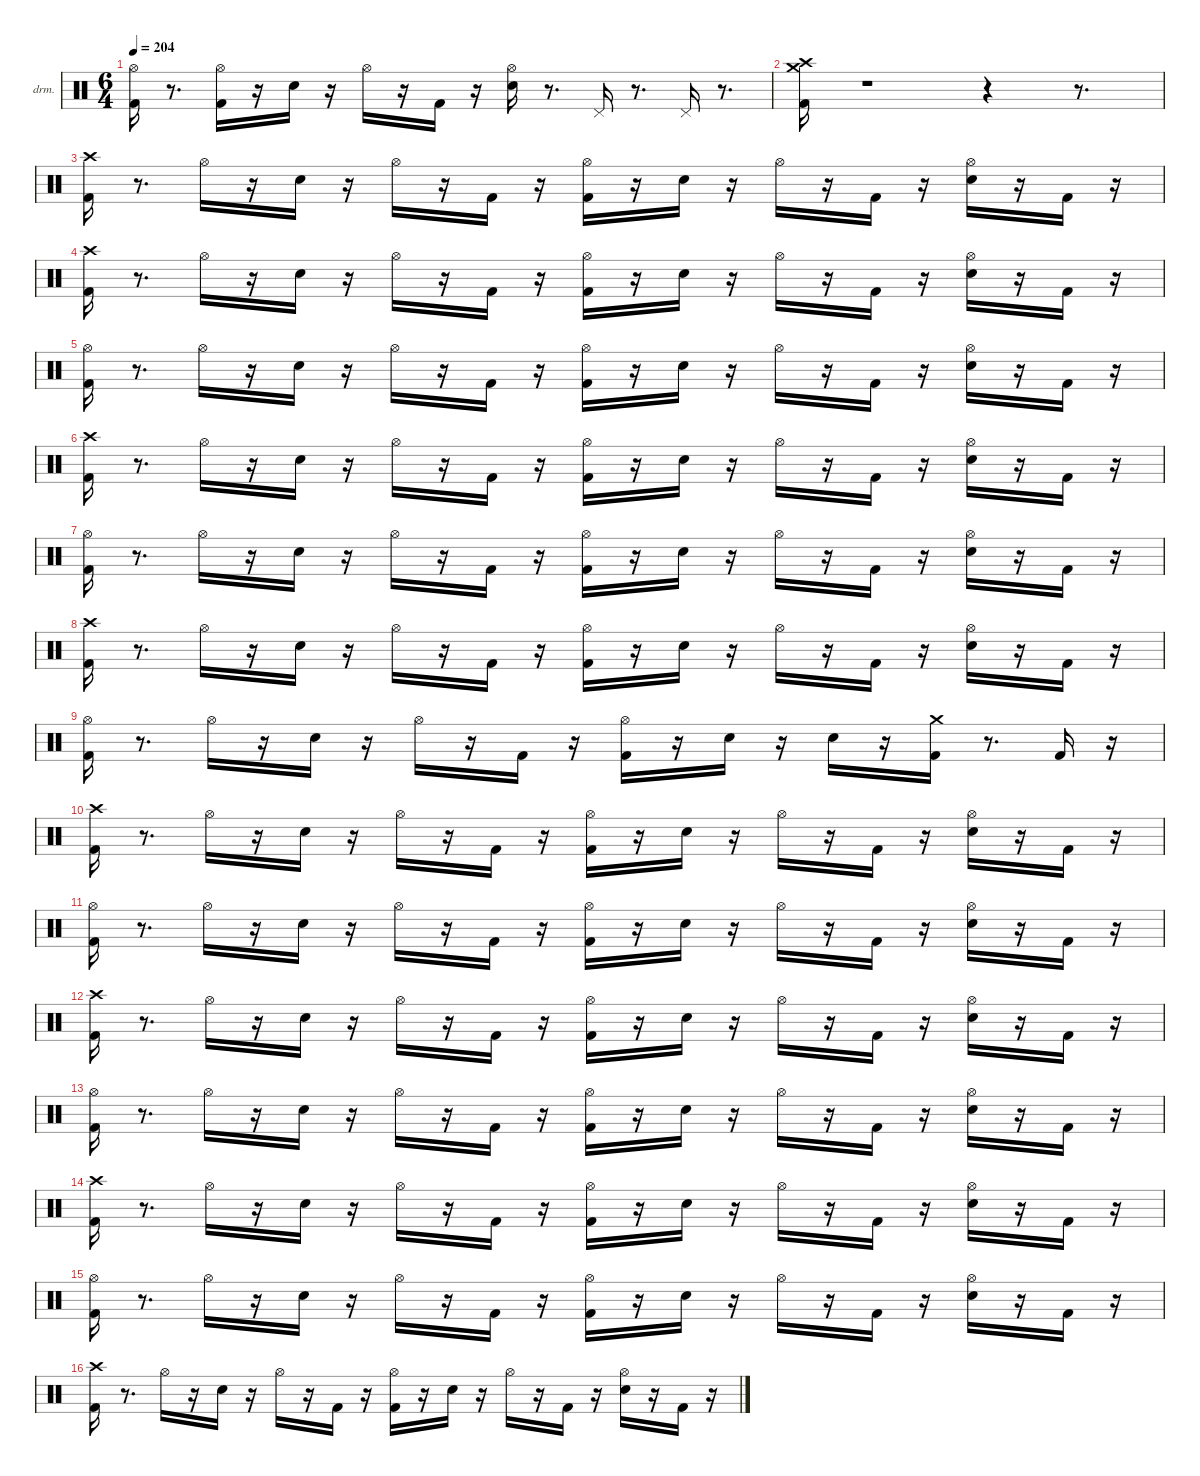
\hideDynamics
\bracketExtendMode nobrackets
\firstSystemTrackNameOrientation horizontal
\otherSystemsTrackNameOrientation horizontal
\track ("drums" "drm.") {instrument percussion}
\staff {score}
\articulation defaults
\ts (6 4)
\tempo 204
\clef neutral
\ks aminor
("Kick (hit) 2" "Hi-Hat (open)"{acc #}).16{dy fff beam Down} r.8{d beam Down} ("Kick (hit) 2" "Hi-Hat (open)"{acc #}).16{dy ff beam Down} r.16{beam Down} "Snare (hit) 2".16{beam Down} r.16{beam Down} "Hi-Hat (open)"{acc #}.16{dy f beam Down} r.16{beam Down} "Kick (hit) 2".16{beam Up} r.16{beam Up} ("Snare (hit) 2" "Hi-Hat (open)"{acc #}).16{dy ff beam Down} r.8{d beam Down} "Pedal Hi-Hat (hit)"{acc #}.16{dy f beam Up} r.8{d beam Up} "Pedal Hi-Hat (hit)"{acc #}.16{dy fff beam Up} r.8{d beam Up} |
("Kick (hit) 2" "Crash high (hit)"{acc #} "Crash medium (hit)").16{beam Down} r.1{beam Down} r.4{beam Down} r.8{d beam Down} |
("Kick (hit) 2" "Crash high (hit)"{acc #}).16{beam Down} r.8{d beam Down} "Hi-Hat (open)"{acc #}.16{dy mf beam Down} r.16{beam Down} "Snare (hit) 2".16{dy ff beam Down} r.16{beam Down} "Hi-Hat (open)"{acc #}.16{dy f beam Down} r.16{beam Down} "Kick (hit) 2".16{dy mf beam Up} r.16{beam Up} ("Kick (hit) 2" "Hi-Hat (open)"{acc #}).16{dy fff beam Down} r.16{beam Down} "Snare (hit) 2".16{dy ff beam Down} r.16{beam Down} "Hi-Hat (open)"{acc #}.16{dy mf beam Down} r.16{beam Down} "Kick (hit) 2".16{dy ff beam Up} r.16{beam Up} ("Snare (hit) 2" "Hi-Hat (open)"{acc #}).16{dy f beam Down} r.16{beam Down} "Kick (hit) 2".16{dy mp beam Up} r.16{beam Up} |
("Kick (hit) 2" "Crash high (hit)"{acc #}).16{dy fff beam Down} r.8{d beam Down} "Hi-Hat (open)"{acc #}.16{dy mf beam Down} r.16{beam Down} "Snare (hit) 2".16{dy ff beam Down} r.16{beam Down} "Hi-Hat (open)"{acc #}.16{dy f beam Down} r.16{beam Down} "Kick (hit) 2".16{dy mf beam Up} r.16{beam Up} ("Kick (hit) 2" "Hi-Hat (open)"{acc #}).16{dy fff beam Down} r.16{beam Down} "Snare (hit) 2".16{dy ff beam Down} r.16{beam Down} "Hi-Hat (open)"{acc #}.16{dy mp beam Down} r.16{beam Down} "Kick (hit) 2".16{dy ff beam Up} r.16{beam Up} ("Snare (hit) 2" "Hi-Hat (open)"{acc #}).16{dy f beam Down} r.16{beam Down} "Kick (hit) 2".16{dy mp beam Up} r.16{beam Up} |
("Kick (hit) 2" "Hi-Hat (open)"{acc #}).16{dy fff beam Down} r.8{d beam Down} "Hi-Hat (open)"{acc #}.16{dy mp beam Down} r.16{beam Down} "Snare (hit) 2".16{dy ff beam Down} r.16{beam Down} "Hi-Hat (open)"{acc #}.16{dy f beam Down} r.16{beam Down} "Kick (hit) 2".16{dy mf beam Up} r.16{beam Up} ("Kick (hit) 2" "Hi-Hat (open)"{acc #}).16{dy fff beam Down} r.16{beam Down} "Snare (hit) 2".16{dy ff beam Down} r.16{beam Down} "Hi-Hat (open)"{acc #}.16{dy mf beam Down} r.16{beam Down} "Kick (hit) 2".16{dy ff beam Up} r.16{beam Up} ("Snare (hit) 2" "Hi-Hat (open)"{acc #}).16{dy f beam Down} r.16{beam Down} "Kick (hit) 2".16{dy mp beam Up} r.16{beam Up} |
("Kick (hit) 2" "Crash high (hit)"{acc #}).16{dy fff beam Down} r.8{d beam Down} "Hi-Hat (open)"{acc #}.16{dy mf beam Down} r.16{beam Down} "Snare (hit) 2".16{dy ff beam Down} r.16{beam Down} "Hi-Hat (open)"{acc #}.16{dy f beam Down} r.16{beam Down} "Kick (hit) 2".16{dy mf beam Up} r.16{beam Up} ("Kick (hit) 2" "Hi-Hat (open)"{acc #}).16{dy fff beam Down} r.16{beam Down} "Snare (hit) 2".16{dy ff beam Down} r.16{beam Down} "Hi-Hat (open)"{acc #}.16{dy mp beam Down} r.16{beam Down} "Kick (hit) 2".16{dy ff beam Up} r.16{beam Up} ("Snare (hit) 2" "Hi-Hat (open)"{acc #}).16{dy f beam Down} r.16{beam Down} "Kick (hit) 2".16{dy mp beam Up} r.16{beam Up} |
("Kick (hit) 2" "Hi-Hat (open)"{acc #}).16{dy fff beam Down} r.8{d beam Down} "Hi-Hat (open)"{acc #}.16{dy mp beam Down} r.16{beam Down} "Snare (hit) 2".16{dy ff beam Down} r.16{beam Down} "Hi-Hat (open)"{acc #}.16{dy f beam Down} r.16{beam Down} "Kick (hit) 2".16{dy mf beam Up} r.16{beam Up} ("Kick (hit) 2" "Hi-Hat (open)"{acc #}).16{dy fff beam Down} r.16{beam Down} "Snare (hit) 2".16{dy ff beam Down} r.16{beam Down} "Hi-Hat (open)"{acc #}.16{dy mf beam Down} r.16{beam Down} "Kick (hit) 2".16{dy ff beam Up} r.16{beam Up} ("Snare (hit) 2" "Hi-Hat (open)"{acc #}).16{dy f beam Down} r.16{beam Down} "Kick (hit) 2".16{dy mp beam Up} r.16{beam Up} |
("Kick (hit) 2" "Crash high (hit)"{acc #}).16{dy fff beam Down} r.8{d beam Down} "Hi-Hat (open)"{acc #}.16{dy mf beam Down} r.16{beam Down} "Snare (hit) 2".16{dy ff beam Down} r.16{beam Down} "Hi-Hat (open)"{acc #}.16{dy f beam Down} r.16{beam Down} "Kick (hit) 2".16{dy mf beam Up} r.16{beam Up} ("Kick (hit) 2" "Hi-Hat (open)"{acc #}).16{dy fff beam Down} r.16{beam Down} "Snare (hit) 2".16{dy ff beam Down} r.16{beam Down} "Hi-Hat (open)"{acc #}.16{dy mp beam Down} r.16{beam Down} "Kick (hit) 2".16{dy ff beam Up} r.16{beam Up} ("Snare (hit) 2" "Hi-Hat (open)"{acc #}).16{dy f beam Down} r.16{beam Down} "Kick (hit) 2".16{dy mp beam Up} r.16{beam Up} |
("Kick (hit) 2" "Hi-Hat (open)"{acc #}).16{dy fff beam Down} r.8{d beam Down} "Hi-Hat (open)"{acc #}.16{dy mp beam Down} r.16{beam Down} "Snare (hit) 2".16{dy ff beam Down} r.16{beam Down} "Hi-Hat (open)"{acc #}.16{dy f beam Down} r.16{beam Down} "Kick (hit) 2".16{dy mf beam Up} r.16{beam Up} ("Kick (hit) 2" "Hi-Hat (open)"{acc #}).16{dy fff beam Down} r.16{beam Down} "Snare (hit) 2".16{dy ff beam Down} r.16{beam Down} "Snare (hit) 2".16{dy p beam Down} r.16{beam Down} ("Kick (hit) 2" "Crash medium (hit)").16{dy ff beam Down} r.8{d beam Down} "Kick (hit) 2".16{dy mf beam Up} r.16{beam Up} |
("Kick (hit) 2" "Crash high (hit)"{acc #}).16{dy fff beam Down} r.8{d beam Down} "Hi-Hat (open)"{acc #}.16{dy mf beam Down} r.16{beam Down} "Snare (hit) 2".16{dy ff beam Down} r.16{beam Down} "Hi-Hat (open)"{acc #}.16{dy f beam Down} r.16{beam Down} "Kick (hit) 2".16{dy mf beam Up} r.16{beam Up} ("Kick (hit) 2" "Hi-Hat (open)"{acc #}).16{dy fff beam Down} r.16{beam Down} "Snare (hit) 2".16{dy ff beam Down} r.16{beam Down} "Hi-Hat (open)"{acc #}.16{dy mp beam Down} r.16{beam Down} "Kick (hit) 2".16{dy ff beam Up} r.16{beam Up} ("Snare (hit) 2" "Hi-Hat (open)"{acc #}).16{dy f beam Down} r.16{beam Down} "Kick (hit) 2".16{dy mp beam Up} r.16{beam Up} |
("Kick (hit) 2" "Hi-Hat (open)"{acc #}).16{dy fff beam Down} r.8{d beam Down} "Hi-Hat (open)"{acc #}.16{dy mf beam Down} r.16{beam Down} "Snare (hit) 2".16{dy ff beam Down} r.16{beam Down} "Hi-Hat (open)"{acc #}.16{dy f beam Down} r.16{beam Down} "Kick (hit) 2".16{dy mf beam Up} r.16{beam Up} ("Kick (hit) 2" "Hi-Hat (open)"{acc #}).16{dy fff beam Down} r.16{beam Down} "Snare (hit) 2".16{dy ff beam Down} r.16{beam Down} "Hi-Hat (open)"{acc #}.16{dy mf beam Down} r.16{beam Down} "Kick (hit) 2".16{dy ff beam Up} r.16{beam Up} ("Snare (hit) 2" "Hi-Hat (open)"{acc #}).16{dy f beam Down} r.16{beam Down} "Kick (hit) 2".16{dy mp beam Up} r.16{beam Up} |
("Kick (hit) 2" "Crash high (hit)"{acc #}).16{dy fff beam Down} r.8{d beam Down} "Hi-Hat (open)"{acc #}.16{dy mf beam Down} r.16{beam Down} "Snare (hit) 2".16{dy ff beam Down} r.16{beam Down} "Hi-Hat (open)"{acc #}.16{dy f beam Down} r.16{beam Down} "Kick (hit) 2".16{dy mf beam Up} r.16{beam Up} ("Kick (hit) 2" "Hi-Hat (open)"{acc #}).16{dy fff beam Down} r.16{beam Down} "Snare (hit) 2".16{dy ff beam Down} r.16{beam Down} "Hi-Hat (open)"{acc #}.16{dy mp beam Down} r.16{beam Down} "Kick (hit) 2".16{dy ff beam Up} r.16{beam Up} ("Snare (hit) 2" "Hi-Hat (open)"{acc #}).16{dy f beam Down} r.16{beam Down} "Kick (hit) 2".16{dy mp beam Up} r.16{beam Up} |
("Kick (hit) 2" "Hi-Hat (open)"{acc #}).16{dy fff beam Down} r.8{d beam Down} "Hi-Hat (open)"{acc #}.16{dy mp beam Down} r.16{beam Down} "Snare (hit) 2".16{dy ff beam Down} r.16{beam Down} "Hi-Hat (open)"{acc #}.16{dy f beam Down} r.16{beam Down} "Kick (hit) 2".16{dy mf beam Up} r.16{beam Up} ("Kick (hit) 2" "Hi-Hat (open)"{acc #}).16{dy fff beam Down} r.16{beam Down} "Snare (hit) 2".16{dy ff beam Down} r.16{beam Down} "Hi-Hat (open)"{acc #}.16{dy mf beam Down} r.16{beam Down} "Kick (hit) 2".16{dy ff beam Up} r.16{beam Up} ("Snare (hit) 2" "Hi-Hat (open)"{acc #}).16{dy f beam Down} r.16{beam Down} "Kick (hit) 2".16{dy mp beam Up} r.16{beam Up} |
("Kick (hit) 2" "Crash high (hit)"{acc #}).16{dy fff beam Down} r.8{d beam Down} "Hi-Hat (open)"{acc #}.16{dy mf beam Down} r.16{beam Down} "Snare (hit) 2".16{dy ff beam Down} r.16{beam Down} "Hi-Hat (open)"{acc #}.16{dy f beam Down} r.16{beam Down} "Kick (hit) 2".16{dy mf beam Up} r.16{beam Up} ("Kick (hit) 2" "Hi-Hat (open)"{acc #}).16{dy fff beam Down} r.16{beam Down} "Snare (hit) 2".16{dy ff beam Down} r.16{beam Down} "Hi-Hat (open)"{acc #}.16{dy mp beam Down} r.16{beam Down} "Kick (hit) 2".16{dy ff beam Up} r.16{beam Up} ("Snare (hit) 2" "Hi-Hat (open)"{acc #}).16{dy f beam Down} r.16{beam Down} "Kick (hit) 2".16{dy mp beam Up} r.16{beam Up} |
("Kick (hit) 2" "Hi-Hat (open)"{acc #}).16{dy fff beam Down} r.8{d beam Down} "Hi-Hat (open)"{acc #}.16{dy mp beam Down} r.16{beam Down} "Snare (hit) 2".16{dy ff beam Down} r.16{beam Down} "Hi-Hat (open)"{acc #}.16{dy f beam Down} r.16{beam Down} "Kick (hit) 2".16{dy mf beam Up} r.16{beam Up} ("Kick (hit) 2" "Hi-Hat (open)"{acc #}).16{dy fff beam Down} r.16{beam Down} "Snare (hit) 2".16{dy ff beam Down} r.16{beam Down} "Hi-Hat (open)"{acc #}.16{dy mf beam Down} r.16{beam Down} "Kick (hit) 2".16{dy ff beam Up} r.16{beam Up} ("Snare (hit) 2" "Hi-Hat (open)"{acc #}).16{dy f beam Down} r.16{beam Down} "Kick (hit) 2".16{dy mp beam Up} r.16{beam Up} |
("Kick (hit) 2" "Crash high (hit)"{acc #}).16{dy fff beam Down} r.8{d beam Down} "Hi-Hat (open)"{acc #}.16{dy mf beam Down} r.16{beam Down} "Snare (hit) 2".16{dy ff beam Down} r.16{beam Down} "Hi-Hat (open)"{acc #}.16{dy f beam Down} r.16{beam Down} "Kick (hit) 2".16{dy mf beam Up} r.16{beam Up} ("Kick (hit) 2" "Hi-Hat (open)"{acc #}).16{dy fff beam Down} r.16{beam Down} "Snare (hit) 2".16{dy ff beam Down} r.16{beam Down} "Hi-Hat (open)"{acc #}.16{dy mp beam Down} r.16{beam Down} "Kick (hit) 2".16{dy ff beam Up} r.16{beam Up} ("Snare (hit) 2" "Hi-Hat (open)"{acc #}).16{dy f beam Down} r.16{beam Down} "Kick (hit) 2".16{dy mp beam Up} r.16{beam Up}
